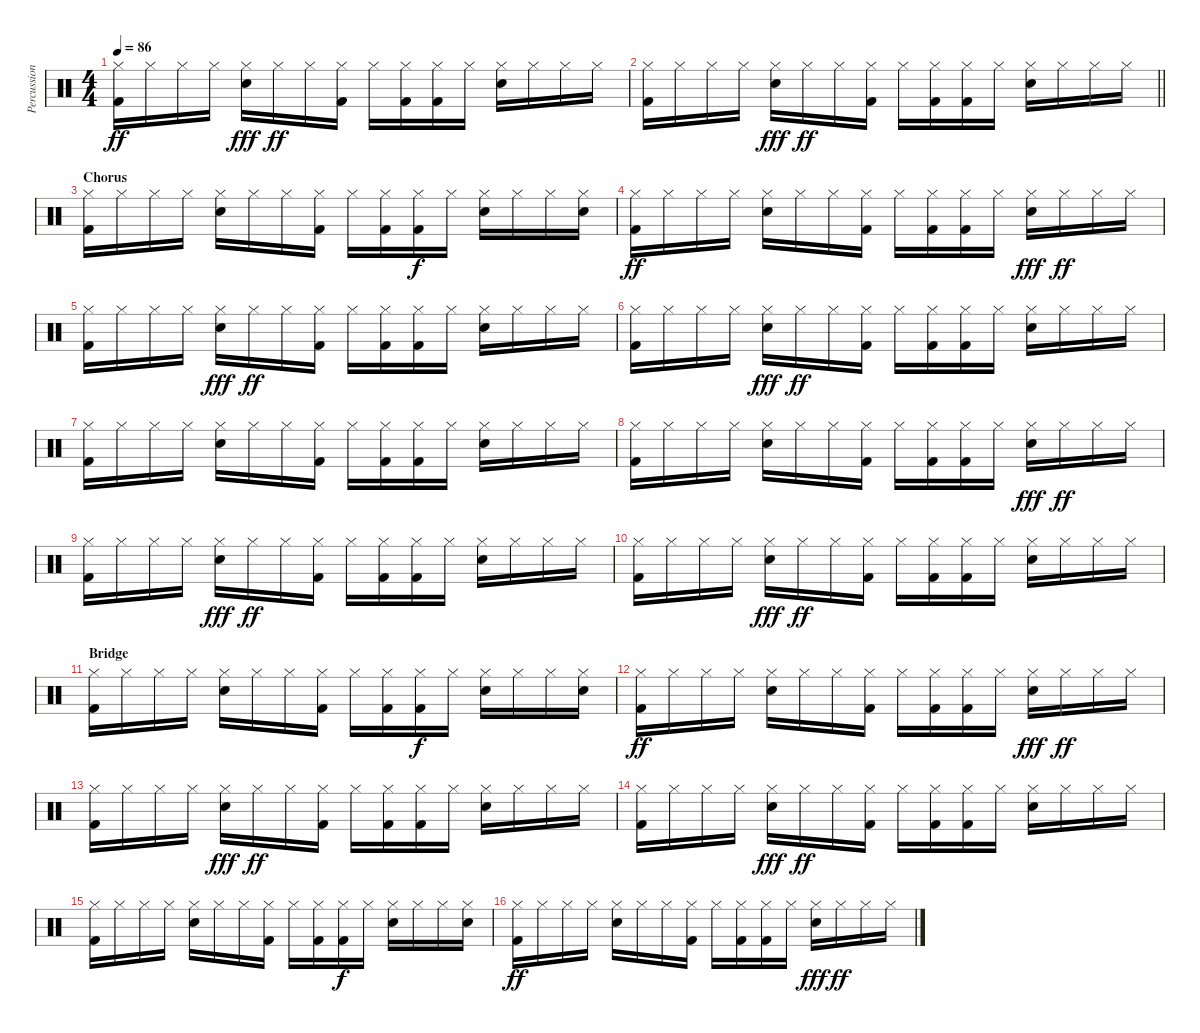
\track ("Percussion" "Percussion") {instrument percussion}
\staff {score}
\articulation defaults
\ts (4 4)
\tempo 86
\clef neutral
\ks c
("Hi-Hat (closed)" "Kick (hit) 2").16{dy ff} "Hi-Hat (closed)".16 "Hi-Hat (closed)".16 "Hi-Hat (closed)".16 ("Snare (hit) 2" "Hi-Hat (closed)").16{dy fff} "Hi-Hat (closed)".16{dy ff} "Hi-Hat (closed)".16 ("Hi-Hat (closed)" "Kick (hit) 2").16 "Hi-Hat (closed)".16 ("Kick (hit) 2" "Hi-Hat (closed)").16 ("Kick (hit) 2" "Hi-Hat (closed)").16 "Hi-Hat (closed)".16 ("Hi-Hat (closed)" "Snare (hit) 2").16 "Hi-Hat (closed)".16 "Hi-Hat (closed)".16 "Hi-Hat (closed)".16 |
\barLineRight lightlight
("Hi-Hat (closed)" "Kick (hit) 2").16 "Hi-Hat (closed)".16 "Hi-Hat (closed)".16 "Hi-Hat (closed)".16 ("Snare (hit) 2" "Hi-Hat (closed)").16{dy fff} "Hi-Hat (closed)".16{dy ff} "Hi-Hat (closed)".16 ("Hi-Hat (closed)" "Kick (hit) 2").16 "Hi-Hat (closed)".16 ("Kick (hit) 2" "Hi-Hat (closed)").16 ("Kick (hit) 2" "Hi-Hat (closed)").16 "Hi-Hat (closed)".16 ("Hi-Hat (closed)" "Snare (hit) 2").16 "Hi-Hat (closed)".16 "Hi-Hat (closed)".16 "Hi-Hat (closed)".16 |
\section ("" "Chorus")
("Hi-Hat (closed)" "Kick (hit) 2").16 "Hi-Hat (closed)".16 "Hi-Hat (closed)".16 "Hi-Hat (closed)".16 ("Hi-Hat (closed)" "Snare (hit) 2").16 "Hi-Hat (closed)".16 "Hi-Hat (closed)".16 ("Hi-Hat (closed)" "Kick (hit) 2").16 "Hi-Hat (closed)".16 ("Hi-Hat (closed)" "Kick (hit) 2").16 ("Hi-Hat (closed)" "Kick (hit) 2").16{dy f} "Hi-Hat (closed)".16 ("Hi-Hat (closed)" "Snare (hit) 2").16 "Hi-Hat (closed)".16 "Hi-Hat (closed)".16 ("Hi-Hat (closed)" "Snare (hit) 2").16 |
("Hi-Hat (closed)" "Kick (hit) 2").16{dy ff} "Hi-Hat (closed)".16 "Hi-Hat (closed)".16 "Hi-Hat (closed)".16 ("Hi-Hat (closed)" "Snare (hit) 2").16 "Hi-Hat (closed)".16 "Hi-Hat (closed)".16 ("Hi-Hat (closed)" "Kick (hit) 2").16 "Hi-Hat (closed)".16 ("Hi-Hat (closed)" "Kick (hit) 2").16 ("Hi-Hat (closed)" "Kick (hit) 2").16 "Hi-Hat (closed)".16 ("Hi-Hat (closed)" "Snare (hit) 2").16{dy fff} "Hi-Hat (closed)".16{dy ff} "Hi-Hat (closed)".16 "Hi-Hat (closed)".16 |
("Hi-Hat (closed)" "Kick (hit) 2").16 "Hi-Hat (closed)".16 "Hi-Hat (closed)".16 "Hi-Hat (closed)".16 ("Snare (hit) 2" "Hi-Hat (closed)").16{dy fff} "Hi-Hat (closed)".16{dy ff} "Hi-Hat (closed)".16 ("Hi-Hat (closed)" "Kick (hit) 2").16 "Hi-Hat (closed)".16 ("Kick (hit) 2" "Hi-Hat (closed)").16 ("Kick (hit) 2" "Hi-Hat (closed)").16 "Hi-Hat (closed)".16 ("Hi-Hat (closed)" "Snare (hit) 2").16 "Hi-Hat (closed)".16 "Hi-Hat (closed)".16 "Hi-Hat (closed)".16 |
("Hi-Hat (closed)" "Kick (hit) 2").16 "Hi-Hat (closed)".16 "Hi-Hat (closed)".16 "Hi-Hat (closed)".16 ("Snare (hit) 2" "Hi-Hat (closed)").16{dy fff} "Hi-Hat (closed)".16{dy ff} "Hi-Hat (closed)".16 ("Hi-Hat (closed)" "Kick (hit) 2").16 "Hi-Hat (closed)".16 ("Kick (hit) 2" "Hi-Hat (closed)").16 ("Kick (hit) 2" "Hi-Hat (closed)").16 "Hi-Hat (closed)".16 ("Hi-Hat (closed)" "Snare (hit) 2").16 "Hi-Hat (closed)".16 "Hi-Hat (closed)".16 "Hi-Hat (closed)".16 |
("Hi-Hat (closed)" "Kick (hit) 2").16 "Hi-Hat (closed)".16 "Hi-Hat (closed)".16 "Hi-Hat (closed)".16 ("Hi-Hat (closed)" "Snare (hit) 2").16 "Hi-Hat (closed)".16 "Hi-Hat (closed)".16 ("Hi-Hat (closed)" "Kick (hit) 2").16 "Hi-Hat (closed)".16 ("Hi-Hat (closed)" "Kick (hit) 2").16 ("Hi-Hat (closed)" "Kick (hit) 2").16 "Hi-Hat (closed)".16 ("Hi-Hat (closed)" "Snare (hit) 2").16 "Hi-Hat (closed)".16 "Hi-Hat (closed)".16 "Hi-Hat (closed)".16 |
("Hi-Hat (closed)" "Kick (hit) 2").16 "Hi-Hat (closed)".16 "Hi-Hat (closed)".16 "Hi-Hat (closed)".16 ("Hi-Hat (closed)" "Snare (hit) 2").16 "Hi-Hat (closed)".16 "Hi-Hat (closed)".16 ("Hi-Hat (closed)" "Kick (hit) 2").16 "Hi-Hat (closed)".16 ("Hi-Hat (closed)" "Kick (hit) 2").16 ("Hi-Hat (closed)" "Kick (hit) 2").16 "Hi-Hat (closed)".16 ("Hi-Hat (closed)" "Snare (hit) 2").16{dy fff} "Hi-Hat (closed)".16{dy ff} "Hi-Hat (closed)".16 "Hi-Hat (closed)".16 |
("Hi-Hat (closed)" "Kick (hit) 2").16 "Hi-Hat (closed)".16 "Hi-Hat (closed)".16 "Hi-Hat (closed)".16 ("Snare (hit) 2" "Hi-Hat (closed)").16{dy fff} "Hi-Hat (closed)".16{dy ff} "Hi-Hat (closed)".16 ("Hi-Hat (closed)" "Kick (hit) 2").16 "Hi-Hat (closed)".16 ("Kick (hit) 2" "Hi-Hat (closed)").16 ("Kick (hit) 2" "Hi-Hat (closed)").16 "Hi-Hat (closed)".16 ("Hi-Hat (closed)" "Snare (hit) 2").16 "Hi-Hat (closed)".16 "Hi-Hat (closed)".16 "Hi-Hat (closed)".16 |
("Hi-Hat (closed)" "Kick (hit) 2").16 "Hi-Hat (closed)".16 "Hi-Hat (closed)".16 "Hi-Hat (closed)".16 ("Snare (hit) 2" "Hi-Hat (closed)").16{dy fff} "Hi-Hat (closed)".16{dy ff} "Hi-Hat (closed)".16 ("Hi-Hat (closed)" "Kick (hit) 2").16 "Hi-Hat (closed)".16 ("Kick (hit) 2" "Hi-Hat (closed)").16 ("Kick (hit) 2" "Hi-Hat (closed)").16 "Hi-Hat (closed)".16 ("Hi-Hat (closed)" "Snare (hit) 2").16 "Hi-Hat (closed)".16 "Hi-Hat (closed)".16 "Hi-Hat (closed)".16 |
\section ("" "Bridge")
("Hi-Hat (closed)" "Kick (hit) 2").16 "Hi-Hat (closed)".16 "Hi-Hat (closed)".16 "Hi-Hat (closed)".16 ("Hi-Hat (closed)" "Snare (hit) 2").16 "Hi-Hat (closed)".16 "Hi-Hat (closed)".16 ("Hi-Hat (closed)" "Kick (hit) 2").16 "Hi-Hat (closed)".16 ("Hi-Hat (closed)" "Kick (hit) 2").16 ("Hi-Hat (closed)" "Kick (hit) 2").16{dy f} "Hi-Hat (closed)".16 ("Hi-Hat (closed)" "Snare (hit) 2").16 "Hi-Hat (closed)".16 "Hi-Hat (closed)".16 ("Hi-Hat (closed)" "Snare (hit) 2").16 |
("Hi-Hat (closed)" "Kick (hit) 2").16{dy ff} "Hi-Hat (closed)".16 "Hi-Hat (closed)".16 "Hi-Hat (closed)".16 ("Hi-Hat (closed)" "Snare (hit) 2").16 "Hi-Hat (closed)".16 "Hi-Hat (closed)".16 ("Hi-Hat (closed)" "Kick (hit) 2").16 "Hi-Hat (closed)".16 ("Hi-Hat (closed)" "Kick (hit) 2").16 ("Hi-Hat (closed)" "Kick (hit) 2").16 "Hi-Hat (closed)".16 ("Hi-Hat (closed)" "Snare (hit) 2").16{dy fff} "Hi-Hat (closed)".16{dy ff} "Hi-Hat (closed)".16 "Hi-Hat (closed)".16 |
("Hi-Hat (closed)" "Kick (hit) 2").16 "Hi-Hat (closed)".16 "Hi-Hat (closed)".16 "Hi-Hat (closed)".16 ("Snare (hit) 2" "Hi-Hat (closed)").16{dy fff} "Hi-Hat (closed)".16{dy ff} "Hi-Hat (closed)".16 ("Hi-Hat (closed)" "Kick (hit) 2").16 "Hi-Hat (closed)".16 ("Kick (hit) 2" "Hi-Hat (closed)").16 ("Kick (hit) 2" "Hi-Hat (closed)").16 "Hi-Hat (closed)".16 ("Hi-Hat (closed)" "Snare (hit) 2").16 "Hi-Hat (closed)".16 "Hi-Hat (closed)".16 "Hi-Hat (closed)".16 |
("Hi-Hat (closed)" "Kick (hit) 2").16 "Hi-Hat (closed)".16 "Hi-Hat (closed)".16 "Hi-Hat (closed)".16 ("Snare (hit) 2" "Hi-Hat (closed)").16{dy fff} "Hi-Hat (closed)".16{dy ff} "Hi-Hat (closed)".16 ("Hi-Hat (closed)" "Kick (hit) 2").16 "Hi-Hat (closed)".16 ("Kick (hit) 2" "Hi-Hat (closed)").16 ("Kick (hit) 2" "Hi-Hat (closed)").16 "Hi-Hat (closed)".16 ("Hi-Hat (closed)" "Snare (hit) 2").16 "Hi-Hat (closed)".16 "Hi-Hat (closed)".16 "Hi-Hat (closed)".16 |
("Hi-Hat (closed)" "Kick (hit) 2").16 "Hi-Hat (closed)".16 "Hi-Hat (closed)".16 "Hi-Hat (closed)".16 ("Hi-Hat (closed)" "Snare (hit) 2").16 "Hi-Hat (closed)".16 "Hi-Hat (closed)".16 ("Hi-Hat (closed)" "Kick (hit) 2").16 "Hi-Hat (closed)".16 ("Hi-Hat (closed)" "Kick (hit) 2").16 ("Hi-Hat (closed)" "Kick (hit) 2").16{dy f} "Hi-Hat (closed)".16 ("Hi-Hat (closed)" "Snare (hit) 2").16 "Hi-Hat (closed)".16 "Hi-Hat (closed)".16 ("Hi-Hat (closed)" "Snare (hit) 2").16 |
("Hi-Hat (closed)" "Kick (hit) 2").16{dy ff} "Hi-Hat (closed)".16 "Hi-Hat (closed)".16 "Hi-Hat (closed)".16 ("Hi-Hat (closed)" "Snare (hit) 2").16 "Hi-Hat (closed)".16 "Hi-Hat (closed)".16 ("Hi-Hat (closed)" "Kick (hit) 2").16 "Hi-Hat (closed)".16 ("Hi-Hat (closed)" "Kick (hit) 2").16 ("Hi-Hat (closed)" "Kick (hit) 2").16 "Hi-Hat (closed)".16 ("Hi-Hat (closed)" "Snare (hit) 2").16{dy fff} "Hi-Hat (closed)".16{dy ff} "Hi-Hat (closed)".16 "Hi-Hat (closed)".16
